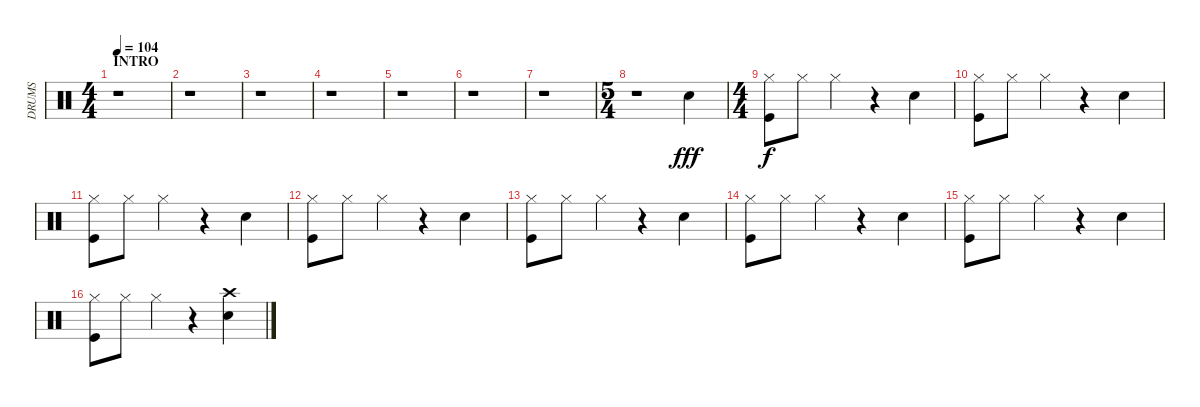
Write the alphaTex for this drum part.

\track ("DRUMS" "DRUMS") {instrument percussion}
\staff {score}
\articulation defaults
\ts (4 4)
\section ("" "INTRO")
\tempo 104
\clef neutral
\ks c
r.1{dy fff} |
r.1 |
r.1 |
r.1 |
r.1 |
r.1 |
r.1 |
\ts (5 4)
r.1 "Snare (hit) 2".4 |
\ts (4 4)
("Hi-Hat (closed)" "Kick (hit)").8{dy f} "Hi-Hat (closed)".8 "Hi-Hat (closed)".4 r.4 "Snare (hit) 2".4 |
("Hi-Hat (closed)" "Kick (hit)").8 "Hi-Hat (closed)".8 "Hi-Hat (closed)".4 r.4 "Snare (hit) 2".4 |
("Hi-Hat (closed)" "Kick (hit)").8 "Hi-Hat (closed)".8 "Hi-Hat (closed)".4 r.4 "Snare (hit) 2".4 |
("Hi-Hat (closed)" "Kick (hit)").8 "Hi-Hat (closed)".8 "Hi-Hat (closed)".4 r.4 "Snare (hit) 2".4 |
("Hi-Hat (closed)" "Kick (hit)").8 "Hi-Hat (closed)".8 "Hi-Hat (closed)".4 r.4 "Snare (hit) 2".4 |
("Hi-Hat (closed)" "Kick (hit)").8 "Hi-Hat (closed)".8 "Hi-Hat (closed)".4 r.4 "Snare (hit) 2".4 |
("Hi-Hat (closed)" "Kick (hit)").8 "Hi-Hat (closed)".8 "Hi-Hat (closed)".4 r.4 "Snare (hit) 2".4 |
("Hi-Hat (closed)" "Kick (hit)").8 "Hi-Hat (closed)".8 "Hi-Hat (closed)".4 r.4 ("Crash high (hit)" "Snare (hit) 2").4
